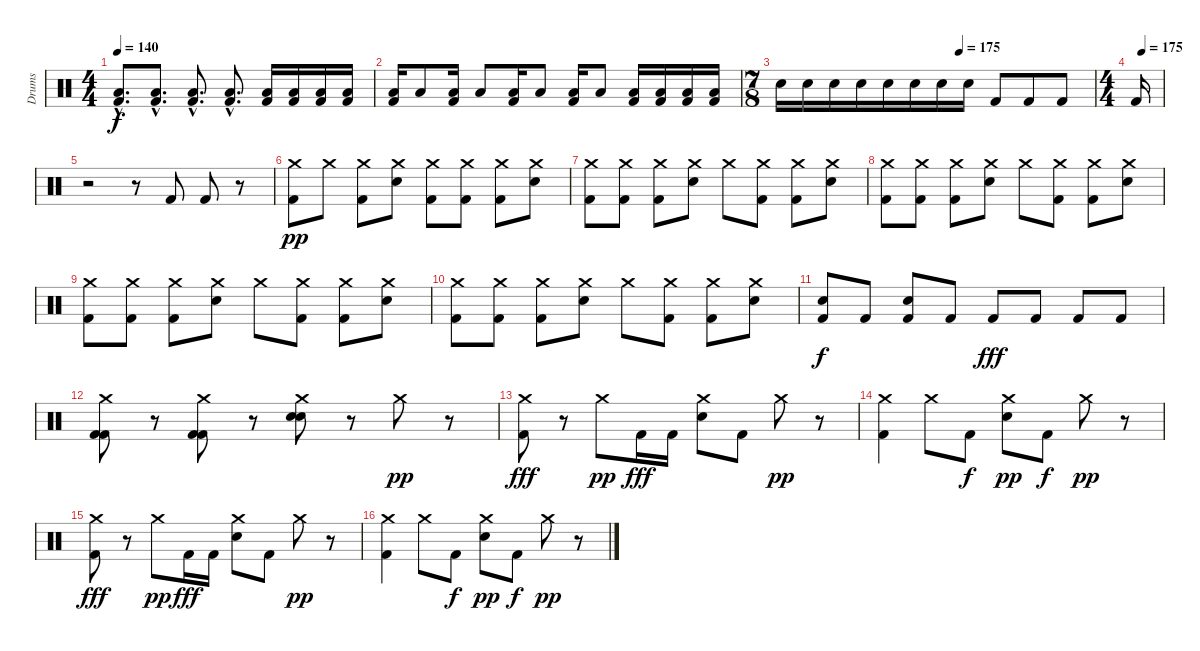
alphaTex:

\track ("Drums" "Drums") {instrument percussion}
\staff {score}
\articulation defaults
\ts (4 4)
\tempo 140
\clef neutral
\ks c
("Low Tom (hit)"{hac} "Kick (hit) 2"{hac}).8{d dy f} ("Low Tom (hit)"{hac} "Kick (hit) 2"{hac}).8{d} ("Low Tom (hit)"{hac} "Kick (hit) 2"{hac}).8{d} ("Low Tom (hit)"{hac} "Kick (hit) 2"{hac}).8{d} ("Low Tom (hit)" "Kick (hit) 2").16 ("Low Tom (hit)" "Kick (hit) 2").16 ("Low Tom (hit)" "Kick (hit) 2").16 ("Low Tom (hit)" "Kick (hit) 2").16 |
("Kick (hit) 2" "Low Tom (hit)").16 "Low Tom (hit)".8 ("Kick (hit) 2" "Low Tom (hit)").16 "Low Tom (hit)".8 ("Kick (hit) 2" "Low Tom (hit)").16 "Low Tom (hit)".8 ("Kick (hit) 2" "Low Tom (hit)").16 "Low Tom (hit)".8 ("Kick (hit) 2" "Low Tom (hit)").16 ("Kick (hit) 2" "Low Tom (hit)").16 ("Kick (hit) 2" "Low Tom (hit)").16 ("Kick (hit) 2" "Low Tom (hit)").16 |
\ts (7 8)
\tempo (175 0.5714285714285714)
"Electric Snare (hit)".16 "Electric Snare (hit)".16 "Electric Snare (hit)".16 "Electric Snare (hit)".16 "Electric Snare (hit)".16 "Electric Snare (hit)".16 "Electric Snare (hit)".16 "Electric Snare (hit)".16 "Kick (hit) 2".8 "Kick (hit) 2".8 "Kick (hit) 2".8 |
\ts (4 4)
\tempo (175 0.25)
"Kick (hit) 2".16 |
r.2 r.8 "Kick (hit) 2".8 "Kick (hit) 2".8 r.8 |
("Crash medium (hit)" "Kick (hit) 2").8{dy pp} "Crash medium (hit)".8 ("Crash medium (hit)" "Kick (hit) 2").8 ("Crash medium (hit)" "Electric Snare (hit)").8 ("Crash medium (hit)" "Kick (hit) 2").8 ("Crash medium (hit)" "Kick (hit) 2").8 ("Crash medium (hit)" "Kick (hit) 2").8 ("Crash medium (hit)" "Electric Snare (hit)").8 |
("Crash medium (hit)" "Kick (hit) 2").8 ("Crash medium (hit)" "Kick (hit) 2").8 ("Crash medium (hit)" "Kick (hit) 2").8 ("Crash medium (hit)" "Electric Snare (hit)").8 "Crash medium (hit)".8 ("Crash medium (hit)" "Kick (hit) 2").8 ("Crash medium (hit)" "Kick (hit) 2").8 ("Crash medium (hit)" "Electric Snare (hit)").8 |
("Crash medium (hit)" "Kick (hit) 2").8 ("Crash medium (hit)" "Kick (hit) 2").8 ("Crash medium (hit)" "Kick (hit) 2").8 ("Crash medium (hit)" "Electric Snare (hit)").8 "Crash medium (hit)".8 ("Crash medium (hit)" "Kick (hit) 2").8 ("Crash medium (hit)" "Kick (hit) 2").8 ("Crash medium (hit)" "Electric Snare (hit)").8 |
("Crash medium (hit)" "Kick (hit) 2").8 ("Crash medium (hit)" "Kick (hit) 2").8 ("Crash medium (hit)" "Kick (hit) 2").8 ("Crash medium (hit)" "Electric Snare (hit)").8 "Crash medium (hit)".8 ("Crash medium (hit)" "Kick (hit) 2").8 ("Crash medium (hit)" "Kick (hit) 2").8 ("Crash medium (hit)" "Electric Snare (hit)").8 |
("Crash medium (hit)" "Kick (hit) 2").8 ("Crash medium (hit)" "Kick (hit) 2").8 ("Crash medium (hit)" "Kick (hit) 2").8 ("Crash medium (hit)" "Electric Snare (hit)").8 "Crash medium (hit)".8 ("Crash medium (hit)" "Kick (hit) 2").8 ("Crash medium (hit)" "Kick (hit) 2").8 ("Crash medium (hit)" "Electric Snare (hit)").8 |
("Electric Snare (hit)" "Kick (hit) 2").8{dy f} "Kick (hit) 2".8 ("Electric Snare (hit)" "Kick (hit) 2").8 "Kick (hit) 2".8 "Kick (hit) 2".8{dy fff} "Kick (hit) 2".8 "Kick (hit) 2".8 "Kick (hit) 2".8 |
("Crash medium (hit)" "Kick (hit) 2" "Kick (hit) 2").8 r.8 ("Crash medium (hit)" "Kick (hit) 2" "Kick (hit) 2").8 r.8 ("Crash medium (hit)" "Electric Snare (hit)" "Electric Snare (hit)").8 r.8 "Crash medium (hit)".8{dy pp} r.8 |
("Crash medium (hit)" "Kick (hit) 2").8{dy fff} r.8 "Crash medium (hit)".8{dy pp} "Kick (hit) 2".16{dy fff} "Kick (hit) 2".16 ("Crash medium (hit)" "Electric Snare (hit)").8 "Kick (hit) 2".8 "Crash medium (hit)".8{dy pp} r.8 |
("Crash medium (hit)" "Kick (hit) 2").4 "Crash medium (hit)".8 "Kick (hit) 2".8{dy f} ("Crash medium (hit)" "Electric Snare (hit)").8{dy pp} "Kick (hit) 2".8{dy f} "Crash medium (hit)".8{dy pp} r.8 |
("Crash medium (hit)" "Kick (hit) 2").8{dy fff} r.8 "Crash medium (hit)".8{dy pp} "Kick (hit) 2".16{dy fff} "Kick (hit) 2".16 ("Crash medium (hit)" "Electric Snare (hit)").8 "Kick (hit) 2".8 "Crash medium (hit)".8{dy pp} r.8 |
("Crash medium (hit)" "Kick (hit) 2").4 "Crash medium (hit)".8 "Kick (hit) 2".8{dy f} ("Crash medium (hit)" "Electric Snare (hit)").8{dy pp} "Kick (hit) 2".8{dy f} "Crash medium (hit)".8{dy pp} r.8
